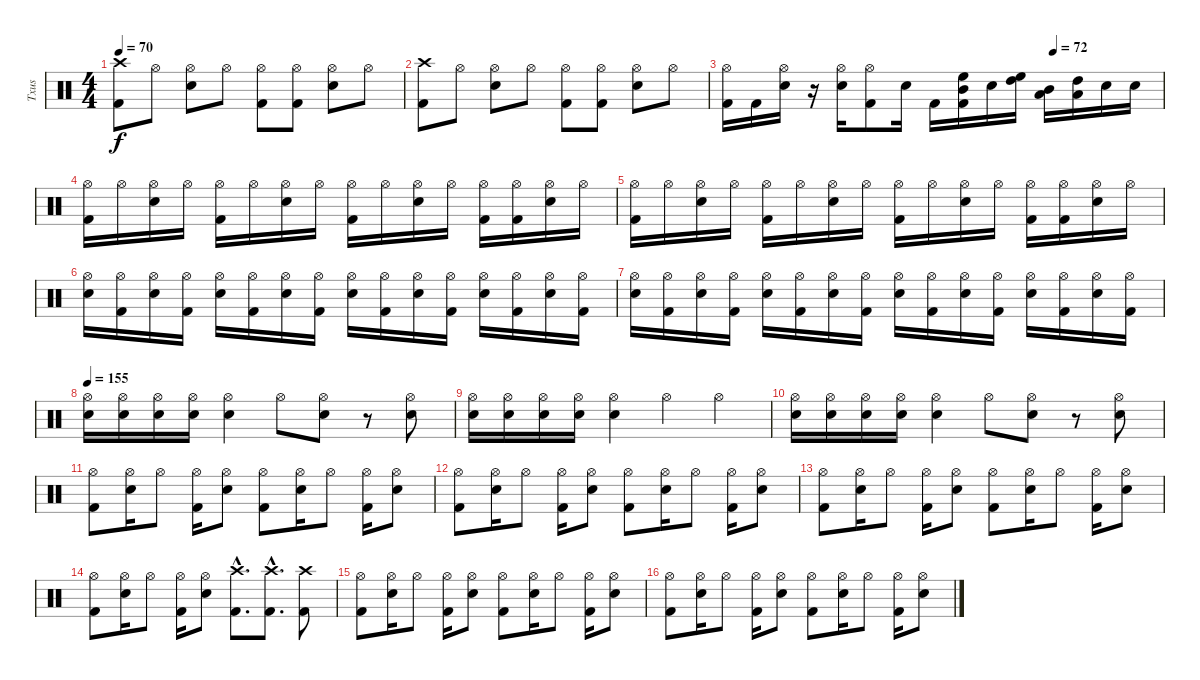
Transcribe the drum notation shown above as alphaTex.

\track ("Txus" "Txus") {instrument percussion}
\staff {score}
\articulation defaults
\ts (4 4)
\tempo 70
\clef neutral
\ks c
("Kick (hit) 2" "Crash high (hit)").8{dy f} "Hi-Hat (open)".8 ("Snare (hit) 2" "Hi-Hat (open)").8 "Hi-Hat (open)".8 ("Kick (hit) 2" "Hi-Hat (open)").8 ("Kick (hit) 2" "Hi-Hat (open)").8 ("Snare (hit) 2" "Hi-Hat (open)").8 "Hi-Hat (open)".8 |
("Kick (hit) 2" "Crash high (hit)").8 "Hi-Hat (open)".8 ("Snare (hit) 2" "Hi-Hat (open)").8 "Hi-Hat (open)".8 ("Kick (hit) 2" "Hi-Hat (open)").8 ("Kick (hit) 2" "Hi-Hat (open)").8 ("Snare (hit) 2" "Hi-Hat (open)").8 "Hi-Hat (open)".8 |
\tempo (72 0.75)
("Kick (hit) 2" "Hi-Hat (open)").16 "Kick (hit) 2".16 ("Snare (hit) 2" "Hi-Hat (open)").16 r.16 ("Snare (hit) 2" "Hi-Hat (open)").16 ("Kick (hit) 2" "Hi-Hat (open)").8 "Snare (hit) 2".16 "Kick (hit) 2".16 ("Kick (hit) 2" "Mid Tom (hit)" "High Floor Tom (hit)").16 "Snare (hit) 2".16 ("High Floor Tom (hit)" "High Tom (hit)").16 ("Low Tom (hit)" "Mid Tom (hit)").16 ("High Tom (hit)" "Low Tom (hit)").16 "Snare (hit) 2".16 "Snare (hit) 2".16 |
("Kick (hit) 2" "Hi-Hat (open)").16 "Hi-Hat (open)".16 ("Snare (hit) 2" "Hi-Hat (open)").16 "Hi-Hat (open)".16 ("Kick (hit) 2" "Hi-Hat (open)").16 "Hi-Hat (open)".16 ("Snare (hit) 2" "Hi-Hat (open)").16 "Hi-Hat (open)".16 ("Kick (hit) 2" "Hi-Hat (open)").16 "Hi-Hat (open)".16 ("Snare (hit) 2" "Hi-Hat (open)").16 "Hi-Hat (open)".16 ("Kick (hit) 2" "Hi-Hat (open)").16 ("Kick (hit) 2" "Hi-Hat (open)").16 ("Snare (hit) 2" "Hi-Hat (open)").16 "Hi-Hat (open)".16 |
("Kick (hit) 2" "Hi-Hat (open)").16 "Hi-Hat (open)".16 ("Snare (hit) 2" "Hi-Hat (open)").16 "Hi-Hat (open)".16 ("Kick (hit) 2" "Hi-Hat (open)").16 "Hi-Hat (open)".16 ("Snare (hit) 2" "Hi-Hat (open)").16 "Hi-Hat (open)".16 ("Kick (hit) 2" "Hi-Hat (open)").16 "Hi-Hat (open)".16 ("Snare (hit) 2" "Hi-Hat (open)").16 "Hi-Hat (open)".16 ("Kick (hit) 2" "Hi-Hat (open)").16 ("Kick (hit) 2" "Hi-Hat (open)").16 ("Snare (hit) 2" "Hi-Hat (open)").16 "Hi-Hat (open)".16 |
("Snare (hit) 2" "Hi-Hat (open)").16 ("Kick (hit) 2" "Hi-Hat (open)").16 ("Snare (hit) 2" "Hi-Hat (open)").16 ("Kick (hit) 2" "Hi-Hat (open)").16 ("Snare (hit) 2" "Hi-Hat (open)").16 ("Kick (hit) 2" "Hi-Hat (open)").16 ("Snare (hit) 2" "Hi-Hat (open)").16 ("Kick (hit) 2" "Hi-Hat (open)").16 ("Snare (hit) 2" "Hi-Hat (open)").16 ("Kick (hit) 2" "Hi-Hat (open)").16 ("Snare (hit) 2" "Hi-Hat (open)").16 ("Kick (hit) 2" "Hi-Hat (open)").16 ("Snare (hit) 2" "Hi-Hat (open)").16 ("Kick (hit) 2" "Hi-Hat (open)").16 ("Snare (hit) 2" "Hi-Hat (open)").16 ("Kick (hit) 2" "Hi-Hat (open)").16 |
("Snare (hit) 2" "Hi-Hat (open)").16 ("Kick (hit) 2" "Hi-Hat (open)").16 ("Snare (hit) 2" "Hi-Hat (open)").16 ("Kick (hit) 2" "Hi-Hat (open)").16 ("Snare (hit) 2" "Hi-Hat (open)").16 ("Kick (hit) 2" "Hi-Hat (open)").16 ("Snare (hit) 2" "Hi-Hat (open)").16 ("Kick (hit) 2" "Hi-Hat (open)").16 ("Snare (hit) 2" "Hi-Hat (open)").16 ("Kick (hit) 2" "Hi-Hat (open)").16 ("Snare (hit) 2" "Hi-Hat (open)").16 ("Kick (hit) 2" "Hi-Hat (open)").16 ("Snare (hit) 2" "Hi-Hat (open)").16 ("Kick (hit) 2" "Hi-Hat (open)").16 ("Snare (hit) 2" "Hi-Hat (open)").16 ("Kick (hit) 2" "Hi-Hat (open)").16 |
\tempo 155
("Snare (hit) 2" "Hi-Hat (open)").16 ("Snare (hit) 2" "Hi-Hat (open)").16 ("Snare (hit) 2" "Hi-Hat (open)").16 ("Snare (hit) 2" "Hi-Hat (open)").16 ("Snare (hit) 2" "Hi-Hat (open)").4 "Hi-Hat (open)".8 ("Snare (hit) 2" "Hi-Hat (open)").8 r.8 ("Snare (hit) 2" "Hi-Hat (open)").8 |
("Snare (hit) 2" "Hi-Hat (open)").16 ("Snare (hit) 2" "Hi-Hat (open)").16 ("Snare (hit) 2" "Hi-Hat (open)").16 ("Snare (hit) 2" "Hi-Hat (open)").16 ("Snare (hit) 2" "Hi-Hat (open)").4 "Hi-Hat (open)".4 "Hi-Hat (open)".4 |
("Snare (hit) 2" "Hi-Hat (open)").16 ("Snare (hit) 2" "Hi-Hat (open)").16 ("Snare (hit) 2" "Hi-Hat (open)").16 ("Snare (hit) 2" "Hi-Hat (open)").16 ("Snare (hit) 2" "Hi-Hat (open)").4 "Hi-Hat (open)".8 ("Snare (hit) 2" "Hi-Hat (open)").8 r.8 ("Snare (hit) 2" "Hi-Hat (open)").8 |
("Kick (hit) 2" "Hi-Hat (open)").8 ("Snare (hit) 2" "Hi-Hat (open)").16 "Hi-Hat (open)".8 ("Kick (hit) 2" "Hi-Hat (open)").16 ("Snare (hit) 2" "Hi-Hat (open)").8 ("Kick (hit) 2" "Hi-Hat (open)").8 ("Snare (hit) 2" "Hi-Hat (open)").16 "Hi-Hat (open)".8 ("Kick (hit) 2" "Hi-Hat (open)").16 ("Snare (hit) 2" "Hi-Hat (open)").8 |
("Kick (hit) 2" "Hi-Hat (open)").8 ("Snare (hit) 2" "Hi-Hat (open)").16 "Hi-Hat (open)".8 ("Kick (hit) 2" "Hi-Hat (open)").16 ("Snare (hit) 2" "Hi-Hat (open)").8 ("Kick (hit) 2" "Hi-Hat (open)").8 ("Snare (hit) 2" "Hi-Hat (open)").16 "Hi-Hat (open)".8 ("Kick (hit) 2" "Hi-Hat (open)").16 ("Snare (hit) 2" "Hi-Hat (open)").8 |
("Kick (hit) 2" "Hi-Hat (open)").8 ("Snare (hit) 2" "Hi-Hat (open)").16 "Hi-Hat (open)".8 ("Kick (hit) 2" "Hi-Hat (open)").16 ("Snare (hit) 2" "Hi-Hat (open)").8 ("Kick (hit) 2" "Hi-Hat (open)").8 ("Snare (hit) 2" "Hi-Hat (open)").16 "Hi-Hat (open)".8 ("Kick (hit) 2" "Hi-Hat (open)").16 ("Snare (hit) 2" "Hi-Hat (open)").8 |
("Kick (hit) 2" "Hi-Hat (open)").8 ("Snare (hit) 2" "Hi-Hat (open)").16 "Hi-Hat (open)".8 ("Kick (hit) 2" "Hi-Hat (open)").16 ("Snare (hit) 2" "Hi-Hat (open)").8 ("Kick (hit) 2"{hac} "Crash high (hit)"{hac}).8{d} ("Kick (hit) 2"{hac} "Crash high (hit)"{hac}).8{d} ("Kick (hit) 2" "Crash high (hit)").8 |
("Kick (hit) 2" "Hi-Hat (open)").8 ("Snare (hit) 2" "Hi-Hat (open)").16 "Hi-Hat (open)".8 ("Kick (hit) 2" "Hi-Hat (open)").16 ("Snare (hit) 2" "Hi-Hat (open)").8 ("Kick (hit) 2" "Hi-Hat (open)").8 ("Snare (hit) 2" "Hi-Hat (open)").16 "Hi-Hat (open)".8 ("Kick (hit) 2" "Hi-Hat (open)").16 ("Snare (hit) 2" "Hi-Hat (open)").8 |
("Kick (hit) 2" "Hi-Hat (open)").8 ("Snare (hit) 2" "Hi-Hat (open)").16 "Hi-Hat (open)".8 ("Kick (hit) 2" "Hi-Hat (open)").16 ("Snare (hit) 2" "Hi-Hat (open)").8 ("Kick (hit) 2" "Hi-Hat (open)").8 ("Snare (hit) 2" "Hi-Hat (open)").16 "Hi-Hat (open)".8 ("Kick (hit) 2" "Hi-Hat (open)").16 ("Snare (hit) 2" "Hi-Hat (open)").8
